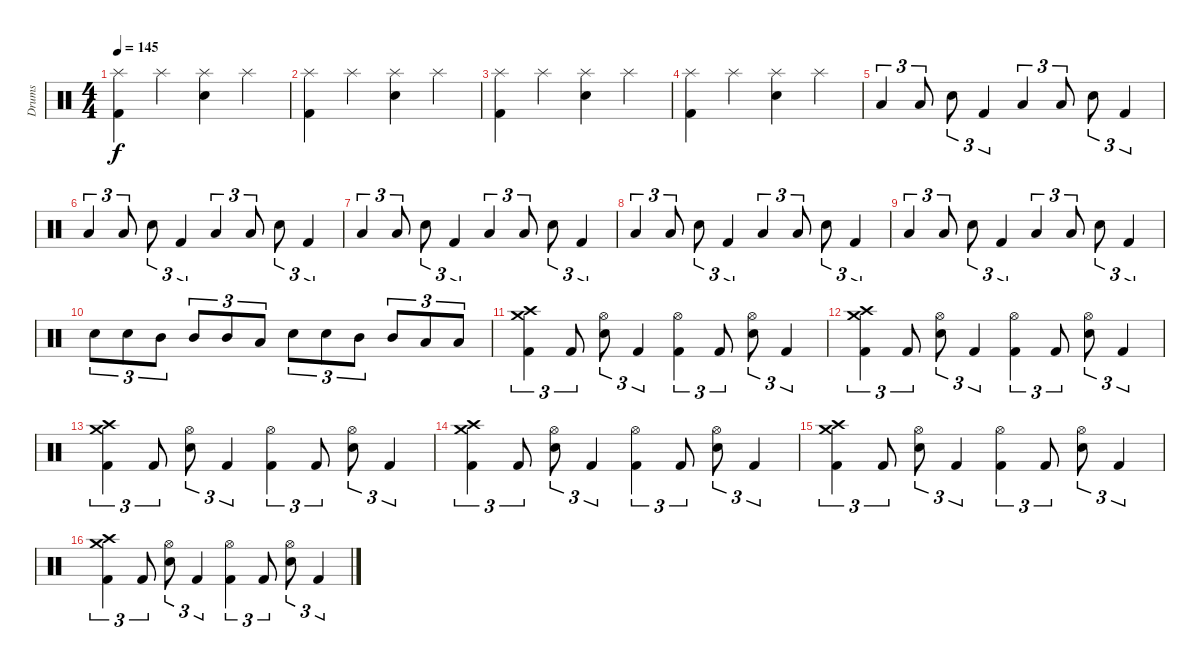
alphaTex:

\track ("Drums" "Drums") {instrument percussion}
\staff {score}
\articulation defaults
\ts (4 4)
\tempo 145
\clef neutral
\ks c
("Splash (hit)" "Kick (hit) 2").4{dy f} "Splash (hit)".4 ("Splash (hit)" "Snare (hit) 2").4 "Splash (hit)".4 |
("Splash (hit)" "Kick (hit) 2").4 "Splash (hit)".4 ("Splash (hit)" "Snare (hit) 2").4 "Splash (hit)".4 |
("Splash (hit)" "Kick (hit) 2").4 "Splash (hit)".4 ("Splash (hit)" "Snare (hit) 2").4 "Splash (hit)".4 |
("Splash (hit)" "Kick (hit) 2").4 "Splash (hit)".4 ("Splash (hit)" "Snare (hit) 2").4 "Splash (hit)".4 |
"Low Tom (hit)".4{tu (3 2)} "Low Tom (hit)".8{tu (3 2)} "Snare (hit) 2".8{tu (3 2)} "Kick (hit) 2".4{tu (3 2)} "Low Tom (hit)".4{tu (3 2)} "Low Tom (hit)".8{tu (3 2)} "Snare (hit) 2".8{tu (3 2)} "Kick (hit) 2".4{tu (3 2)} |
"Low Tom (hit)".4{tu (3 2)} "Low Tom (hit)".8{tu (3 2)} "Snare (hit) 2".8{tu (3 2)} "Kick (hit) 2".4{tu (3 2)} "Low Tom (hit)".4{tu (3 2)} "Low Tom (hit)".8{tu (3 2)} "Snare (hit) 2".8{tu (3 2)} "Kick (hit) 2".4{tu (3 2)} |
"Low Tom (hit)".4{tu (3 2)} "Low Tom (hit)".8{tu (3 2)} "Snare (hit) 2".8{tu (3 2)} "Kick (hit) 2".4{tu (3 2)} "Low Tom (hit)".4{tu (3 2)} "Low Tom (hit)".8{tu (3 2)} "Snare (hit) 2".8{tu (3 2)} "Kick (hit) 2".4{tu (3 2)} |
"Low Tom (hit)".4{tu (3 2)} "Low Tom (hit)".8{tu (3 2)} "Snare (hit) 2".8{tu (3 2)} "Kick (hit) 2".4{tu (3 2)} "Low Tom (hit)".4{tu (3 2)} "Low Tom (hit)".8{tu (3 2)} "Snare (hit) 2".8{tu (3 2)} "Kick (hit) 2".4{tu (3 2)} |
"Low Tom (hit)".4{tu (3 2)} "Low Tom (hit)".8{tu (3 2)} "Snare (hit) 2".8{tu (3 2)} "Kick (hit) 2".4{tu (3 2)} "Low Tom (hit)".4{tu (3 2)} "Low Tom (hit)".8{tu (3 2)} "Snare (hit) 2".8{tu (3 2)} "Kick (hit) 2".4{tu (3 2)} |
"Snare (hit) 2".8{tu (3 2)} "Snare (hit) 2".8{tu (3 2)} "Mid Tom (hit)".8{tu (3 2)} "Mid Tom (hit)".8{tu (3 2)} "Mid Tom (hit)".8{tu (3 2)} "Low Tom (hit)".8{tu (3 2)} "Snare (hit) 2".8{tu (3 2)} "Snare (hit) 2".8{tu (3 2)} "Mid Tom (hit)".8{tu (3 2)} "Mid Tom (hit)".8{tu (3 2)} "Low Tom (hit)".8{tu (3 2)} "Low Tom (hit)".8{tu (3 2)} |
("Crash medium (hit)" "Crash high (hit)" "Kick (hit) 2").4{tu (3 2)} "Kick (hit) 2".8{tu (3 2)} ("Hi-Hat (open)" "Snare (hit) 2").8{tu (3 2)} "Kick (hit) 2".4{tu (3 2)} ("Hi-Hat (open)" "Kick (hit) 2").4{tu (3 2)} "Kick (hit) 2".8{tu (3 2)} ("Hi-Hat (open)" "Snare (hit) 2").8{tu (3 2)} "Kick (hit) 2".4{tu (3 2)} |
("Crash medium (hit)" "Crash high (hit)" "Kick (hit) 2").4{tu (3 2)} "Kick (hit) 2".8{tu (3 2)} ("Hi-Hat (open)" "Snare (hit) 2").8{tu (3 2)} "Kick (hit) 2".4{tu (3 2)} ("Hi-Hat (open)" "Kick (hit) 2").4{tu (3 2)} "Kick (hit) 2".8{tu (3 2)} ("Hi-Hat (open)" "Snare (hit) 2").8{tu (3 2)} "Kick (hit) 2".4{tu (3 2)} |
("Crash medium (hit)" "Crash high (hit)" "Kick (hit) 2").4{tu (3 2)} "Kick (hit) 2".8{tu (3 2)} ("Hi-Hat (open)" "Snare (hit) 2").8{tu (3 2)} "Kick (hit) 2".4{tu (3 2)} ("Hi-Hat (open)" "Kick (hit) 2").4{tu (3 2)} "Kick (hit) 2".8{tu (3 2)} ("Hi-Hat (open)" "Snare (hit) 2").8{tu (3 2)} "Kick (hit) 2".4{tu (3 2)} |
("Crash medium (hit)" "Crash high (hit)" "Kick (hit) 2").4{tu (3 2)} "Kick (hit) 2".8{tu (3 2)} ("Hi-Hat (open)" "Snare (hit) 2").8{tu (3 2)} "Kick (hit) 2".4{tu (3 2)} ("Hi-Hat (open)" "Kick (hit) 2").4{tu (3 2)} "Kick (hit) 2".8{tu (3 2)} ("Hi-Hat (open)" "Snare (hit) 2").8{tu (3 2)} "Kick (hit) 2".4{tu (3 2)} |
("Crash medium (hit)" "Crash high (hit)" "Kick (hit) 2").4{tu (3 2)} "Kick (hit) 2".8{tu (3 2)} ("Hi-Hat (open)" "Snare (hit) 2").8{tu (3 2)} "Kick (hit) 2".4{tu (3 2)} ("Hi-Hat (open)" "Kick (hit) 2").4{tu (3 2)} "Kick (hit) 2".8{tu (3 2)} ("Hi-Hat (open)" "Snare (hit) 2").8{tu (3 2)} "Kick (hit) 2".4{tu (3 2)} |
("Crash medium (hit)" "Crash high (hit)" "Kick (hit) 2").4{tu (3 2)} "Kick (hit) 2".8{tu (3 2)} ("Hi-Hat (open)" "Snare (hit) 2").8{tu (3 2)} "Kick (hit) 2".4{tu (3 2)} ("Hi-Hat (open)" "Kick (hit) 2").4{tu (3 2)} "Kick (hit) 2".8{tu (3 2)} ("Hi-Hat (open)" "Snare (hit) 2").8{tu (3 2)} "Kick (hit) 2".4{tu (3 2)}
